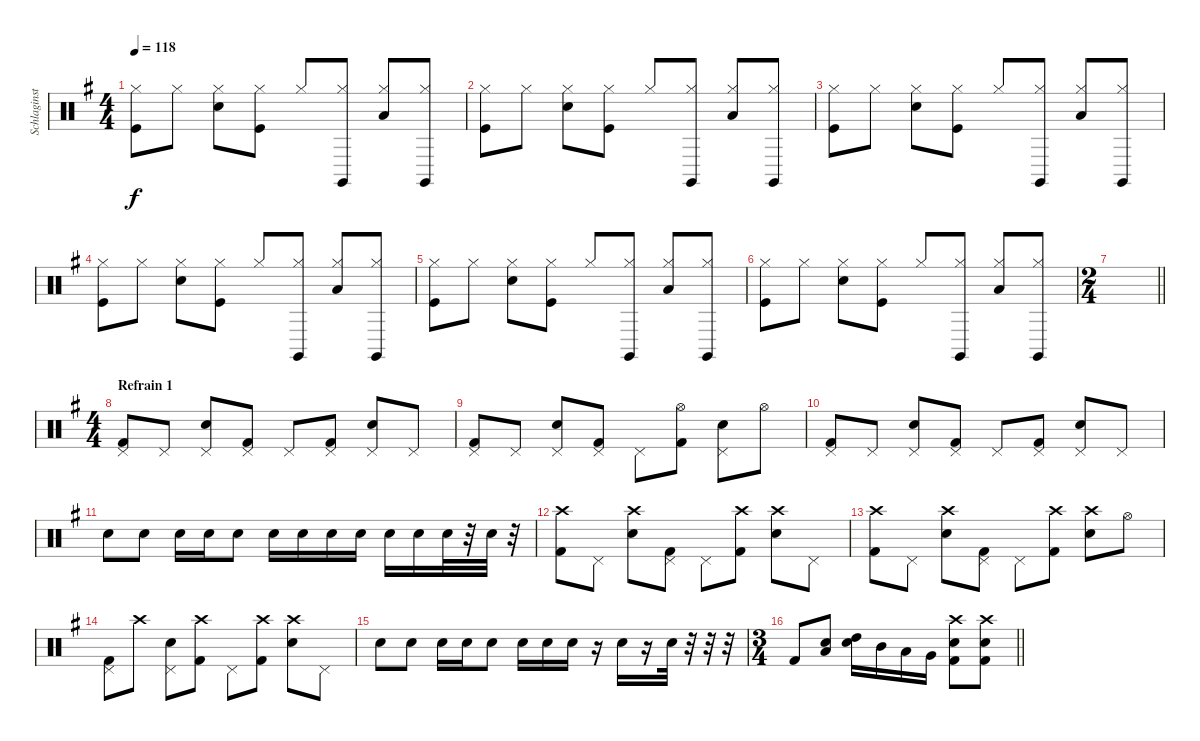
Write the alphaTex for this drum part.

\track ("Schlaginstrumente - Auswahl" "Schlaginst") {instrument percussion}
\staff {score}
\articulation defaults
\ts (4 4)
\tempo 118
\clef neutral
\ks g
("Hi-Hat (closed)" "Kick (hit)").8{dy f} "Hi-Hat (closed)".8 ("Hi-Hat (closed)" "Electric Snare (hit)").8 ("Hi-Hat (closed)" "Kick (hit)").8 "Hi-Hat (closed)".8 ("Hi-Hat (closed)" "Claves (hit)").8 ("Hi-Hat (closed)" "Low Tom (hit)").8 ("Hi-Hat (closed)" "Claves (hit)").8 |
("Hi-Hat (closed)" "Kick (hit)").8 "Hi-Hat (closed)".8 ("Hi-Hat (closed)" "Electric Snare (hit)").8 ("Hi-Hat (closed)" "Kick (hit)").8 "Hi-Hat (closed)".8 ("Hi-Hat (closed)" "Claves (hit)").8 ("Hi-Hat (closed)" "Low Tom (hit)").8 ("Hi-Hat (closed)" "Claves (hit)").8 |
("Hi-Hat (closed)" "Kick (hit)").8 "Hi-Hat (closed)".8 ("Hi-Hat (closed)" "Electric Snare (hit)").8 ("Hi-Hat (closed)" "Kick (hit)").8 "Hi-Hat (closed)".8 ("Hi-Hat (closed)" "Claves (hit)").8 ("Hi-Hat (closed)" "Low Tom (hit)").8 ("Hi-Hat (closed)" "Claves (hit)").8 |
("Hi-Hat (closed)" "Kick (hit)").8 "Hi-Hat (closed)".8 ("Hi-Hat (closed)" "Electric Snare (hit)").8 ("Hi-Hat (closed)" "Kick (hit)").8 "Hi-Hat (closed)".8 ("Hi-Hat (closed)" "Claves (hit)").8 ("Hi-Hat (closed)" "Low Tom (hit)").8 ("Hi-Hat (closed)" "Claves (hit)").8 |
("Hi-Hat (closed)" "Kick (hit)").8 "Hi-Hat (closed)".8 ("Hi-Hat (closed)" "Electric Snare (hit)").8 ("Hi-Hat (closed)" "Kick (hit)").8 "Hi-Hat (closed)".8 ("Hi-Hat (closed)" "Claves (hit)").8 ("Hi-Hat (closed)" "Low Tom (hit)").8 ("Hi-Hat (closed)" "Claves (hit)").8 |
("Hi-Hat (closed)" "Kick (hit)").8 "Hi-Hat (closed)".8 ("Hi-Hat (closed)" "Electric Snare (hit)").8 ("Hi-Hat (closed)" "Kick (hit)").8 "Hi-Hat (closed)".8 ("Hi-Hat (closed)" "Claves (hit)").8 ("Hi-Hat (closed)" "Low Tom (hit)").8 ("Hi-Hat (closed)" "Claves (hit)").8 |
\ts (2 4)
\barLineRight lightlight
|
\ts (4 4)
\section ("" "Refrain 1")
("Pedal Hi-Hat (hit)" "Kick (hit) 2").8 "Pedal Hi-Hat (hit)".8 ("Pedal Hi-Hat (hit)" "Snare (hit) 2").8 ("Pedal Hi-Hat (hit)" "Kick (hit) 2").8 "Pedal Hi-Hat (hit)".8 ("Pedal Hi-Hat (hit)" "Kick (hit) 2").8 ("Pedal Hi-Hat (hit)" "Snare (hit) 2").8 "Pedal Hi-Hat (hit)".8 |
("Pedal Hi-Hat (hit)" "Kick (hit) 2").8 "Pedal Hi-Hat (hit)".8 ("Pedal Hi-Hat (hit)" "Snare (hit) 2").8 ("Pedal Hi-Hat (hit)" "Kick (hit) 2").8 "Pedal Hi-Hat (hit)".8 ("Hi-Hat (open)" "Kick (hit) 2").8 ("Pedal Hi-Hat (hit)" "Snare (hit) 2").8 "Hi-Hat (open)".8 |
("Pedal Hi-Hat (hit)" "Kick (hit) 2").8 "Pedal Hi-Hat (hit)".8 ("Pedal Hi-Hat (hit)" "Snare (hit) 2").8 ("Pedal Hi-Hat (hit)" "Kick (hit) 2").8 "Pedal Hi-Hat (hit)".8 ("Pedal Hi-Hat (hit)" "Kick (hit) 2").8 ("Pedal Hi-Hat (hit)" "Snare (hit) 2").8 "Pedal Hi-Hat (hit)".8 |
"Snare (hit) 2".8 "Snare (hit) 2".8 "Snare (hit) 2".16 "Snare (hit) 2".16 "Snare (hit) 2".8 "Snare (hit) 2".16 "Snare (hit) 2".16 "Snare (hit) 2".16 "Snare (hit) 2".16 "Snare (hit) 2".16 "Snare (hit) 2".16 "Snare (hit) 2".32 r.32 "Snare (hit) 2".32 r.32 |
("Crash high (hit)" "Kick (hit) 2").8 "Pedal Hi-Hat (hit)".8 ("Crash high (hit)" "Snare (hit) 2").8 ("Pedal Hi-Hat (hit)" "Kick (hit) 2").8 "Pedal Hi-Hat (hit)".8 ("Crash high (hit)" "Kick (hit) 2").8 ("Crash high (hit)" "Snare (hit) 2").8 "Pedal Hi-Hat (hit)".8 |
("Crash high (hit)" "Kick (hit) 2").8 "Pedal Hi-Hat (hit)".8 ("Crash high (hit)" "Snare (hit) 2").8 ("Pedal Hi-Hat (hit)" "Kick (hit) 2").8 "Pedal Hi-Hat (hit)".8 ("Crash high (hit)" "Kick (hit) 2").8 ("Crash high (hit)" "Snare (hit) 2").8 "Hi-Hat (open)".8 |
("Pedal Hi-Hat (hit)" "Kick (hit) 2").8 "Crash high (hit)".8 ("Pedal Hi-Hat (hit)" "Snare (hit) 2").8 ("Crash high (hit)" "Kick (hit) 2").8 "Pedal Hi-Hat (hit)".8 ("Crash high (hit)" "Kick (hit) 2").8 ("Crash high (hit)" "Snare (hit) 2").8 "Pedal Hi-Hat (hit)".8 |
"Snare (hit) 2".8 "Snare (hit) 2".8 "Snare (hit) 2".16 "Snare (hit) 2".16 "Snare (hit) 2".8 "Snare (hit) 2".16 "Snare (hit) 2".16 "Snare (hit) 2".16 r.16 "Snare (hit) 2".16 r.16 "Snare (hit) 2".32 r.32 r.32 r.32 |
\ts (3 4)
\barLineRight lightlight "Kick (hit) 2".8
("Low Floor Tom (hit)" "Snare (hit) 2").8 ("High Tom (hit)" "Snare (hit) 2").16 "Mid Tom (hit)".16 "Low Tom (hit)".16 "Very Low Tom (hit)".16 ("Snare (hit) 2" "Crash high (hit)" "Kick (hit) 2").8 ("Crash high (hit)" "Snare (hit) 2" "Kick (hit) 2").8
